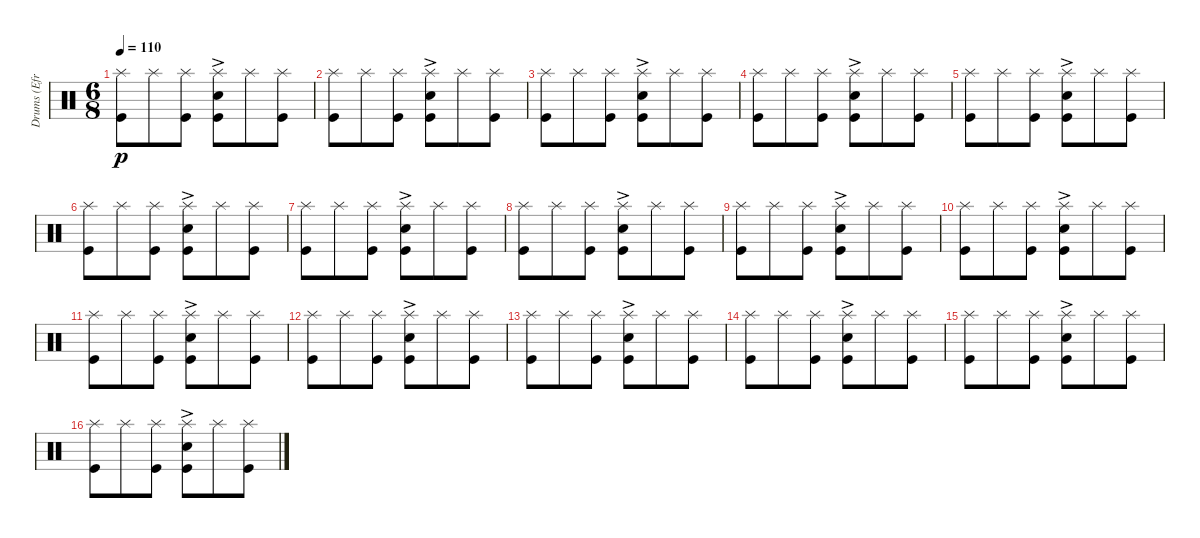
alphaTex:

\track ("Drums (Efremov)" "Drums (Efr") {instrument percussion}
\staff {score}
\articulation defaults
\ts (6 8)
\tempo 110
\clef neutral
\ks c
("Splash (hit)" "Kick (hit)").8{dy p} "Splash (hit)".8 ("Kick (hit)" "Splash (hit)").8 ("Electric Snare (hit)" "Kick (hit)" "Splash (hit)"{ac}).8 "Splash (hit)".8 ("Kick (hit)" "Splash (hit)").8 |
("Splash (hit)" "Kick (hit)").8 "Splash (hit)".8 ("Kick (hit)" "Splash (hit)").8 ("Electric Snare (hit)" "Kick (hit)" "Splash (hit)"{ac}).8 "Splash (hit)".8 ("Kick (hit)" "Splash (hit)").8 |
("Splash (hit)" "Kick (hit)").8 "Splash (hit)".8 ("Kick (hit)" "Splash (hit)").8 ("Electric Snare (hit)" "Kick (hit)" "Splash (hit)"{ac}).8 "Splash (hit)".8 ("Kick (hit)" "Splash (hit)").8 |
("Splash (hit)" "Kick (hit)").8 "Splash (hit)".8 ("Kick (hit)" "Splash (hit)").8 ("Electric Snare (hit)" "Kick (hit)" "Splash (hit)"{ac}).8 "Splash (hit)".8 ("Kick (hit)" "Splash (hit)").8 |
("Splash (hit)" "Kick (hit)").8 "Splash (hit)".8 ("Kick (hit)" "Splash (hit)").8 ("Electric Snare (hit)" "Kick (hit)" "Splash (hit)"{ac}).8 "Splash (hit)".8 ("Kick (hit)" "Splash (hit)").8 |
("Splash (hit)" "Kick (hit)").8 "Splash (hit)".8 ("Kick (hit)" "Splash (hit)").8 ("Electric Snare (hit)" "Kick (hit)" "Splash (hit)"{ac}).8 "Splash (hit)".8 ("Kick (hit)" "Splash (hit)").8 |
("Splash (hit)" "Kick (hit)").8 "Splash (hit)".8 ("Kick (hit)" "Splash (hit)").8 ("Electric Snare (hit)" "Kick (hit)" "Splash (hit)"{ac}).8 "Splash (hit)".8 ("Kick (hit)" "Splash (hit)").8 |
("Splash (hit)" "Kick (hit)").8 "Splash (hit)".8 ("Kick (hit)" "Splash (hit)").8 ("Electric Snare (hit)" "Kick (hit)" "Splash (hit)"{ac}).8 "Splash (hit)".8 ("Kick (hit)" "Splash (hit)").8 |
("Splash (hit)" "Kick (hit)").8 "Splash (hit)".8 ("Kick (hit)" "Splash (hit)").8 ("Electric Snare (hit)" "Kick (hit)" "Splash (hit)"{ac}).8 "Splash (hit)".8 ("Kick (hit)" "Splash (hit)").8 |
("Splash (hit)" "Kick (hit)").8 "Splash (hit)".8 ("Kick (hit)" "Splash (hit)").8 ("Electric Snare (hit)" "Kick (hit)" "Splash (hit)"{ac}).8 "Splash (hit)".8 ("Kick (hit)" "Splash (hit)").8 |
("Splash (hit)" "Kick (hit)").8 "Splash (hit)".8 ("Kick (hit)" "Splash (hit)").8 ("Electric Snare (hit)" "Kick (hit)" "Splash (hit)"{ac}).8 "Splash (hit)".8 ("Kick (hit)" "Splash (hit)").8 |
("Splash (hit)" "Kick (hit)").8 "Splash (hit)".8 ("Kick (hit)" "Splash (hit)").8 ("Electric Snare (hit)" "Kick (hit)" "Splash (hit)"{ac}).8 "Splash (hit)".8 ("Kick (hit)" "Splash (hit)").8 |
("Splash (hit)" "Kick (hit)").8 "Splash (hit)".8 ("Kick (hit)" "Splash (hit)").8 ("Electric Snare (hit)" "Kick (hit)" "Splash (hit)"{ac}).8 "Splash (hit)".8 ("Kick (hit)" "Splash (hit)").8 |
("Splash (hit)" "Kick (hit)").8 "Splash (hit)".8 ("Kick (hit)" "Splash (hit)").8 ("Electric Snare (hit)" "Kick (hit)" "Splash (hit)"{ac}).8 "Splash (hit)".8 ("Kick (hit)" "Splash (hit)").8 |
("Splash (hit)" "Kick (hit)").8 "Splash (hit)".8 ("Kick (hit)" "Splash (hit)").8 ("Electric Snare (hit)" "Kick (hit)" "Splash (hit)"{ac}).8 "Splash (hit)".8 ("Kick (hit)" "Splash (hit)").8 |
("Splash (hit)" "Kick (hit)").8 "Splash (hit)".8 ("Kick (hit)" "Splash (hit)").8 ("Electric Snare (hit)" "Kick (hit)" "Splash (hit)"{ac}).8 "Splash (hit)".8 ("Kick (hit)" "Splash (hit)").8
